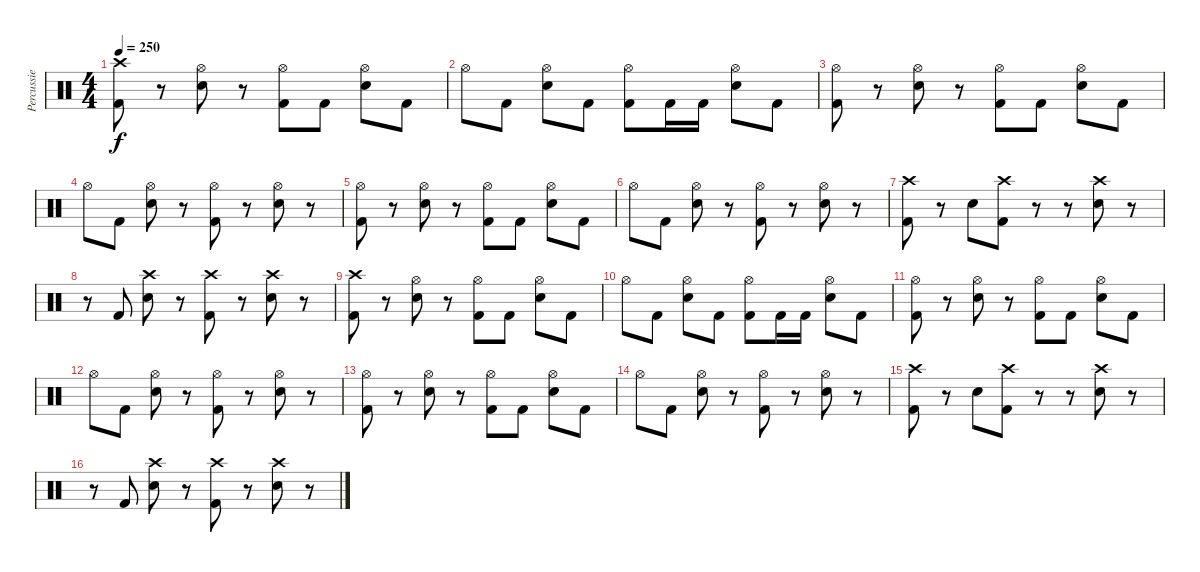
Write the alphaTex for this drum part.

\track ("Percussie" "Percussie") {instrument percussion}
\staff {score}
\articulation defaults
\ts (4 4)
\tempo 250
\clef neutral
\ks c
("Kick (hit) 2" "Crash high (hit)").8{dy f} r.8 ("Snare (hit) 2" "Hi-Hat (open)").8 r.8 ("Kick (hit) 2" "Hi-Hat (open)").8 "Kick (hit) 2".8 ("Snare (hit) 2" "Hi-Hat (open)").8 "Kick (hit) 2".8 |
"Hi-Hat (open)".8 "Kick (hit) 2".8 ("Snare (hit) 2" "Hi-Hat (open)").8 "Kick (hit) 2".8 ("Kick (hit) 2" "Hi-Hat (open)").8 "Kick (hit) 2".16 "Kick (hit) 2".16 ("Snare (hit) 2" "Hi-Hat (open)").8 "Kick (hit) 2".8 |
("Kick (hit) 2" "Hi-Hat (open)").8 r.8 ("Snare (hit) 2" "Hi-Hat (open)").8 r.8 ("Kick (hit) 2" "Hi-Hat (open)").8 "Kick (hit) 2".8 ("Snare (hit) 2" "Hi-Hat (open)").8 "Kick (hit) 2".8 |
"Hi-Hat (open)".8 "Kick (hit) 2".8 ("Snare (hit) 2" "Hi-Hat (open)").8 r.8 ("Kick (hit) 2" "Hi-Hat (open)").8 r.8 ("Snare (hit) 2" "Hi-Hat (open)").8 r.8 |
("Kick (hit) 2" "Hi-Hat (open)").8 r.8 ("Snare (hit) 2" "Hi-Hat (open)").8 r.8 ("Kick (hit) 2" "Hi-Hat (open)").8 "Kick (hit) 2".8 ("Snare (hit) 2" "Hi-Hat (open)").8 "Kick (hit) 2".8 |
"Hi-Hat (open)".8 "Kick (hit) 2".8 ("Snare (hit) 2" "Hi-Hat (open)").8 r.8 ("Kick (hit) 2" "Hi-Hat (open)").8 r.8 ("Snare (hit) 2" "Hi-Hat (open)").8 r.8 |
("Kick (hit) 2" "Crash high (hit)").8 r.8 "Snare (hit) 2".8 ("Kick (hit) 2" "Crash high (hit)").8 r.8 r.8 ("Snare (hit) 2" "Crash high (hit)").8 r.8 |
r.8 "Kick (hit) 2".8 ("Snare (hit) 2" "Crash high (hit)").8 r.8 ("Kick (hit) 2" "Crash high (hit)").8 r.8 ("Snare (hit) 2" "Crash high (hit)").8 r.8 |
("Kick (hit) 2" "Crash high (hit)").8 r.8 ("Snare (hit) 2" "Hi-Hat (open)").8 r.8 ("Kick (hit) 2" "Hi-Hat (open)").8 "Kick (hit) 2".8 ("Snare (hit) 2" "Hi-Hat (open)").8 "Kick (hit) 2".8 |
"Hi-Hat (open)".8 "Kick (hit) 2".8 ("Snare (hit) 2" "Hi-Hat (open)").8 "Kick (hit) 2".8 ("Kick (hit) 2" "Hi-Hat (open)").8 "Kick (hit) 2".16 "Kick (hit) 2".16 ("Snare (hit) 2" "Hi-Hat (open)").8 "Kick (hit) 2".8 |
("Kick (hit) 2" "Hi-Hat (open)").8 r.8 ("Snare (hit) 2" "Hi-Hat (open)").8 r.8 ("Kick (hit) 2" "Hi-Hat (open)").8 "Kick (hit) 2".8 ("Snare (hit) 2" "Hi-Hat (open)").8 "Kick (hit) 2".8 |
"Hi-Hat (open)".8 "Kick (hit) 2".8 ("Snare (hit) 2" "Hi-Hat (open)").8 r.8 ("Kick (hit) 2" "Hi-Hat (open)").8 r.8 ("Snare (hit) 2" "Hi-Hat (open)").8 r.8 |
("Kick (hit) 2" "Hi-Hat (open)").8 r.8 ("Snare (hit) 2" "Hi-Hat (open)").8 r.8 ("Kick (hit) 2" "Hi-Hat (open)").8 "Kick (hit) 2".8 ("Snare (hit) 2" "Hi-Hat (open)").8 "Kick (hit) 2".8 |
"Hi-Hat (open)".8 "Kick (hit) 2".8 ("Snare (hit) 2" "Hi-Hat (open)").8 r.8 ("Kick (hit) 2" "Hi-Hat (open)").8 r.8 ("Snare (hit) 2" "Hi-Hat (open)").8 r.8 |
("Kick (hit) 2" "Crash high (hit)").8 r.8 "Snare (hit) 2".8 ("Kick (hit) 2" "Crash high (hit)").8 r.8 r.8 ("Snare (hit) 2" "Crash high (hit)").8 r.8 |
r.8 "Kick (hit) 2".8 ("Snare (hit) 2" "Crash high (hit)").8 r.8 ("Kick (hit) 2" "Crash high (hit)").8 r.8 ("Snare (hit) 2" "Crash high (hit)").8 r.8
